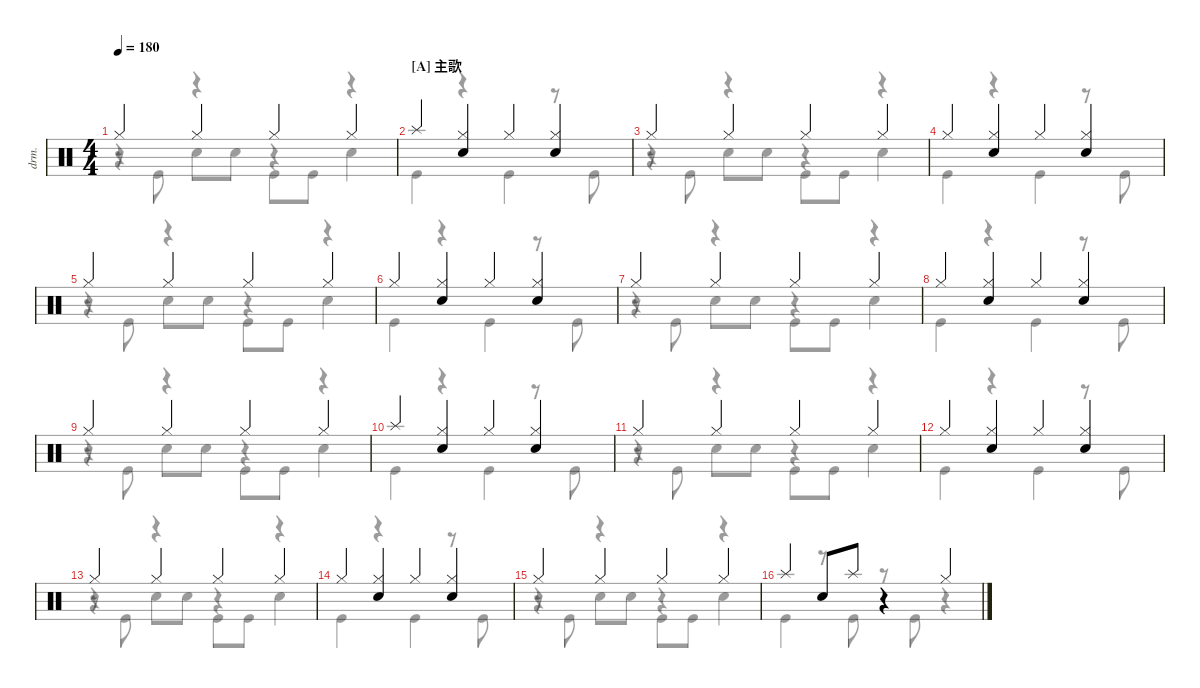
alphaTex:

\defaultSystemsLayout 4
\hideDynamics
\bracketExtendMode nobrackets
\otherSystemsTrackNameOrientation horizontal
\track ("Drumkit" "drm.") {instrument percussion}
\staff {score}
\articulation defaults
\voice
\ts (4 4)
\tempo 180
\clef neutral
\ks c "Hi-Hat (closed)".4{dy mf} "Hi-Hat (closed)".4 "Hi-Hat (closed)".4 "Hi-Hat (closed)".4
|
\section ("A" "主歌")
"Splash (hit)".4 ("Hi-Hat (closed)" "Snare (hit) 2").4 "Hi-Hat (closed)".4 ("Hi-Hat (closed)" "Snare (hit) 2").4 |
"Hi-Hat (closed)".4 "Hi-Hat (closed)".4 "Hi-Hat (closed)".4 "Hi-Hat (closed)".4 |
"Hi-Hat (closed)".4 ("Hi-Hat (closed)" "Snare (hit) 2").4 "Hi-Hat (closed)".4 ("Hi-Hat (closed)" "Snare (hit) 2").4 |
"Hi-Hat (closed)".4 "Hi-Hat (closed)".4 "Hi-Hat (closed)".4 "Hi-Hat (closed)".4 |
"Hi-Hat (closed)".4 ("Hi-Hat (closed)" "Snare (hit) 2").4 "Hi-Hat (closed)".4 ("Hi-Hat (closed)" "Snare (hit) 2").4 |
"Hi-Hat (closed)".4 "Hi-Hat (closed)".4 "Hi-Hat (closed)".4 "Hi-Hat (closed)".4 |
"Hi-Hat (closed)".4 ("Hi-Hat (closed)" "Snare (hit) 2").4 "Hi-Hat (closed)".4 ("Hi-Hat (closed)" "Snare (hit) 2").4 |
"Hi-Hat (closed)".4 "Hi-Hat (closed)".4 "Hi-Hat (closed)".4 "Hi-Hat (closed)".4 |
"Splash (hit)".4 ("Hi-Hat (closed)" "Snare (hit) 2").4 "Hi-Hat (closed)".4 ("Hi-Hat (closed)" "Snare (hit) 2").4 |
"Hi-Hat (closed)".4 "Hi-Hat (closed)".4 "Hi-Hat (closed)".4 "Hi-Hat (closed)".4 |
"Hi-Hat (closed)".4 ("Hi-Hat (closed)" "Snare (hit) 2").4 "Hi-Hat (closed)".4 ("Hi-Hat (closed)" "Snare (hit) 2").4 |
"Hi-Hat (closed)".4 "Hi-Hat (closed)".4 "Hi-Hat (closed)".4 "Hi-Hat (closed)".4 |
"Hi-Hat (closed)".4 ("Hi-Hat (closed)" "Snare (hit) 2").4 "Hi-Hat (closed)".4 ("Hi-Hat (closed)" "Snare (hit) 2").4 |
"Hi-Hat (closed)".4 "Hi-Hat (closed)".4 "Hi-Hat (closed)".4 "Hi-Hat (closed)".4 |
"Splash (hit)".4 "Snare (hit) 2".8 "Splash (hit)".8 r.4 "Hi-Hat (closed)".4
\voice
\clef neutral
\ottava regular
\simile none
\ks c
r.8{dy mf} "Kick (hit)".8 r.4 "Kick (hit)".8 "Kick (hit)".8 r.4 |
"Kick (hit)".4 r.4 "Kick (hit)".4 r.8 "Kick (hit)".8 |
r.8 "Kick (hit)".8 r.4 "Kick (hit)".8 "Kick (hit)".8 r.4 |
"Kick (hit)".4 r.4 "Kick (hit)".4 r.8 "Kick (hit)".8 |
r.8 "Kick (hit)".8 r.4 "Kick (hit)".8 "Kick (hit)".8 r.4 |
"Kick (hit)".4 r.4 "Kick (hit)".4 r.8 "Kick (hit)".8 |
r.8 "Kick (hit)".8 r.4 "Kick (hit)".8 "Kick (hit)".8 r.4 |
"Kick (hit)".4 r.4 "Kick (hit)".4 r.8 "Kick (hit)".8 |
r.8 "Kick (hit)".8 r.4 "Kick (hit)".8 "Kick (hit)".8 r.4 |
"Kick (hit)".4 r.4 "Kick (hit)".4 r.8 "Kick (hit)".8 |
r.8 "Kick (hit)".8 r.4 "Kick (hit)".8 "Kick (hit)".8 r.4 |
"Kick (hit)".4 r.4 "Kick (hit)".4 r.8 "Kick (hit)".8 |
r.8 "Kick (hit)".8 r.4 "Kick (hit)".8 "Kick (hit)".8 r.4 |
"Kick (hit)".4 r.4 "Kick (hit)".4 r.8 "Kick (hit)".8 |
r.8 "Kick (hit)".8 r.4 "Kick (hit)".8 "Kick (hit)".8 r.4 |
"Kick (hit)".4 r.8 "Kick (hit)".8 r.8 "Kick (hit)".8 r.4
\voice
\clef neutral
\ottava regular
\simile none
\ks c
r.4{dy mf} "Snare (hit) 2".8 "Snare (hit) 2".8 r.4 "Snare (hit) 2".4 |
|
r.4 "Snare (hit) 2".8 "Snare (hit) 2".8 r.4 "Snare (hit) 2".4 |
|
r.4 "Snare (hit) 2".8 "Snare (hit) 2".8 r.4 "Snare (hit) 2".4 |
|
r.4 "Snare (hit) 2".8 "Snare (hit) 2".8 r.4 "Snare (hit) 2".4 |
|
r.4 "Snare (hit) 2".8 "Snare (hit) 2".8 r.4 "Snare (hit) 2".4 |
|
r.4 "Snare (hit) 2".8 "Snare (hit) 2".8 r.4 "Snare (hit) 2".4 |
|
r.4 "Snare (hit) 2".8 "Snare (hit) 2".8 r.4 "Snare (hit) 2".4 |
|
r.4 "Snare (hit) 2".8 "Snare (hit) 2".8 r.4 "Snare (hit) 2".4 |
